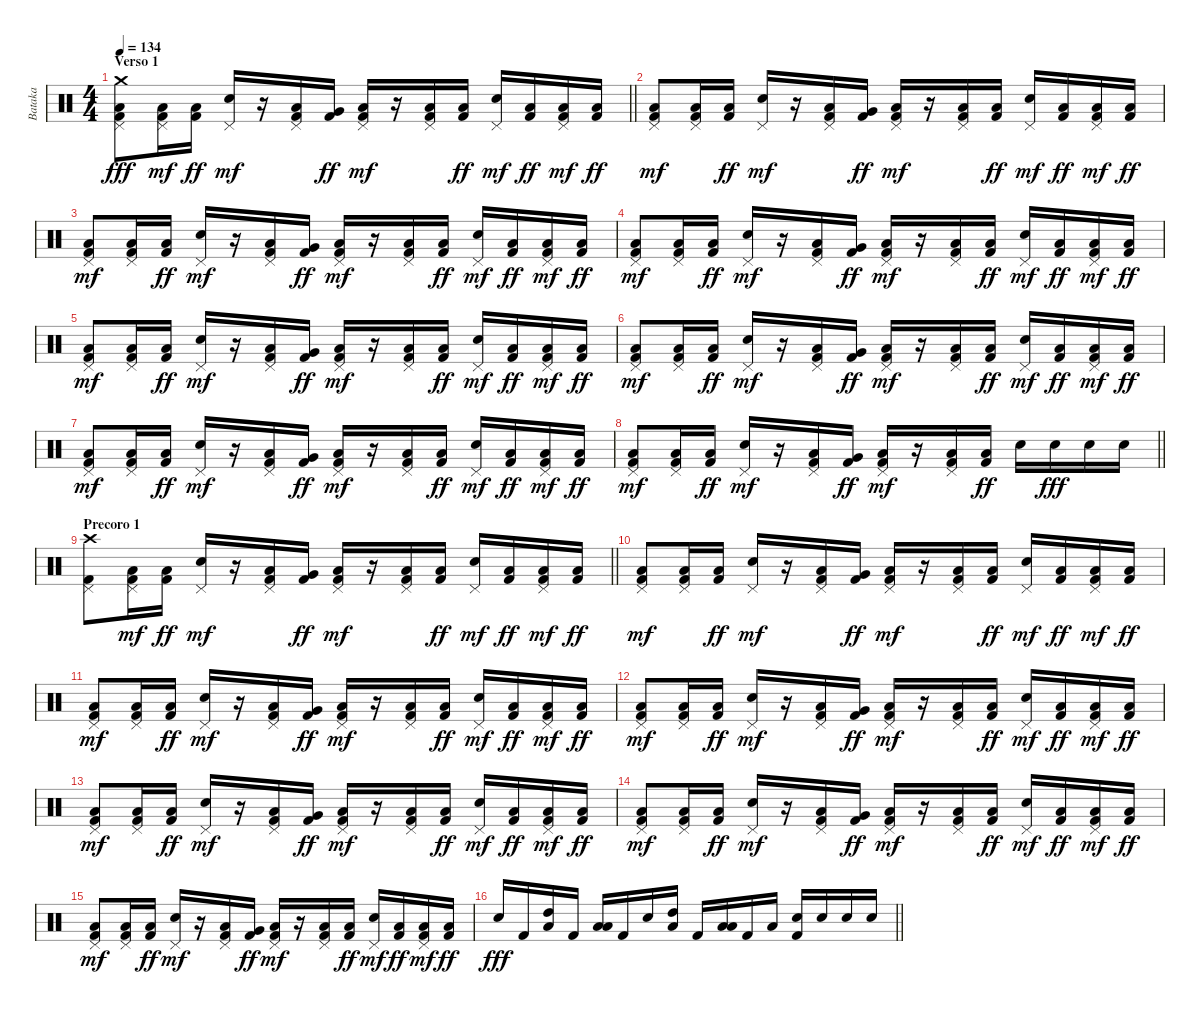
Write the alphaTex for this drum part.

\track ("Bataka" "Bataka") {instrument percussion}
\staff {score}
\articulation defaults
\ts (4 4)
\section ("" "Verso 1")
\tempo 134
\clef neutral
\barLineRight lightlight
\ks c
("Kick (hit) 2" "Low Floor Tom (hit)" "Pedal Hi-Hat (hit)" "Crash medium (hit)").8{dy fff} ("Kick (hit) 2" "Low Floor Tom (hit)" "Pedal Hi-Hat (hit)").16{dy mf} ("Kick (hit) 2" "Low Tom (hit)").16{dy ff} ("Snare (hit) 2" "Pedal Hi-Hat (hit)").16{dy mf} r.16 ("Kick (hit) 2" "Low Tom (hit)" "Pedal Hi-Hat (hit)").16 ("Kick (hit) 2" "Very Low Tom (hit)").16{dy ff} ("Kick (hit) 2" "Low Floor Tom (hit)" "Pedal Hi-Hat (hit)").16{dy mf} r.16 ("Kick (hit) 2" "Low Floor Tom (hit)" "Pedal Hi-Hat (hit)").16 ("Kick (hit) 2" "Low Tom (hit)").16{dy ff} ("Snare (hit) 2" "Pedal Hi-Hat (hit)").16{dy mf} ("Kick (hit) 2" "Low Tom (hit)").16{dy ff} ("Kick (hit) 2" "Low Tom (hit)" "Pedal Hi-Hat (hit)").16{dy mf} ("Kick (hit) 2" "Low Floor Tom (hit)").16{dy ff} |
("Kick (hit) 2" "Low Floor Tom (hit)" "Pedal Hi-Hat (hit)").8{dy mf} ("Kick (hit) 2" "Low Floor Tom (hit)" "Pedal Hi-Hat (hit)").16 ("Kick (hit) 2" "Low Tom (hit)").16{dy ff} ("Snare (hit) 2" "Pedal Hi-Hat (hit)").16{dy mf} r.16 ("Kick (hit) 2" "Low Tom (hit)" "Pedal Hi-Hat (hit)").16 ("Kick (hit) 2" "Very Low Tom (hit)").16{dy ff} ("Kick (hit) 2" "Low Floor Tom (hit)" "Pedal Hi-Hat (hit)").16{dy mf} r.16 ("Kick (hit) 2" "Low Floor Tom (hit)" "Pedal Hi-Hat (hit)").16 ("Kick (hit) 2" "Low Tom (hit)").16{dy ff} ("Snare (hit) 2" "Pedal Hi-Hat (hit)").16{dy mf} ("Kick (hit) 2" "Low Tom (hit)").16{dy ff} ("Kick (hit) 2" "Low Tom (hit)" "Pedal Hi-Hat (hit)").16{dy mf} ("Kick (hit) 2" "Low Floor Tom (hit)").16{dy ff} |
("Kick (hit) 2" "Low Floor Tom (hit)" "Pedal Hi-Hat (hit)").8{dy mf} ("Kick (hit) 2" "Low Floor Tom (hit)" "Pedal Hi-Hat (hit)").16 ("Kick (hit) 2" "Low Tom (hit)").16{dy ff} ("Snare (hit) 2" "Pedal Hi-Hat (hit)").16{dy mf} r.16 ("Kick (hit) 2" "Low Tom (hit)" "Pedal Hi-Hat (hit)").16 ("Kick (hit) 2" "Very Low Tom (hit)").16{dy ff} ("Kick (hit) 2" "Low Floor Tom (hit)" "Pedal Hi-Hat (hit)").16{dy mf} r.16 ("Kick (hit) 2" "Low Floor Tom (hit)" "Pedal Hi-Hat (hit)").16 ("Kick (hit) 2" "Low Tom (hit)").16{dy ff} ("Snare (hit) 2" "Pedal Hi-Hat (hit)").16{dy mf} ("Kick (hit) 2" "Low Tom (hit)").16{dy ff} ("Kick (hit) 2" "Low Tom (hit)" "Pedal Hi-Hat (hit)").16{dy mf} ("Kick (hit) 2" "Low Floor Tom (hit)").16{dy ff} |
("Kick (hit) 2" "Low Floor Tom (hit)" "Pedal Hi-Hat (hit)").8{dy mf} ("Kick (hit) 2" "Low Floor Tom (hit)" "Pedal Hi-Hat (hit)").16 ("Kick (hit) 2" "Low Tom (hit)").16{dy ff} ("Snare (hit) 2" "Pedal Hi-Hat (hit)").16{dy mf} r.16 ("Kick (hit) 2" "Low Tom (hit)" "Pedal Hi-Hat (hit)").16 ("Kick (hit) 2" "Very Low Tom (hit)").16{dy ff} ("Kick (hit) 2" "Low Floor Tom (hit)" "Pedal Hi-Hat (hit)").16{dy mf} r.16 ("Kick (hit) 2" "Low Floor Tom (hit)" "Pedal Hi-Hat (hit)").16 ("Kick (hit) 2" "Low Tom (hit)").16{dy ff} ("Snare (hit) 2" "Pedal Hi-Hat (hit)").16{dy mf} ("Kick (hit) 2" "Low Tom (hit)").16{dy ff} ("Kick (hit) 2" "Low Tom (hit)" "Pedal Hi-Hat (hit)").16{dy mf} ("Kick (hit) 2" "Low Floor Tom (hit)").16{dy ff} |
("Kick (hit) 2" "Low Floor Tom (hit)" "Pedal Hi-Hat (hit)").8{dy mf} ("Kick (hit) 2" "Low Floor Tom (hit)" "Pedal Hi-Hat (hit)").16 ("Kick (hit) 2" "Low Tom (hit)").16{dy ff} ("Snare (hit) 2" "Pedal Hi-Hat (hit)").16{dy mf} r.16 ("Kick (hit) 2" "Low Tom (hit)" "Pedal Hi-Hat (hit)").16 ("Kick (hit) 2" "Very Low Tom (hit)").16{dy ff} ("Kick (hit) 2" "Low Floor Tom (hit)" "Pedal Hi-Hat (hit)").16{dy mf} r.16 ("Kick (hit) 2" "Low Floor Tom (hit)" "Pedal Hi-Hat (hit)").16 ("Kick (hit) 2" "Low Tom (hit)").16{dy ff} ("Snare (hit) 2" "Pedal Hi-Hat (hit)").16{dy mf} ("Kick (hit) 2" "Low Tom (hit)").16{dy ff} ("Kick (hit) 2" "Low Tom (hit)" "Pedal Hi-Hat (hit)").16{dy mf} ("Kick (hit) 2" "Low Floor Tom (hit)").16{dy ff} |
("Kick (hit) 2" "Low Floor Tom (hit)" "Pedal Hi-Hat (hit)").8{dy mf} ("Kick (hit) 2" "Low Floor Tom (hit)" "Pedal Hi-Hat (hit)").16 ("Kick (hit) 2" "Low Tom (hit)").16{dy ff} ("Snare (hit) 2" "Pedal Hi-Hat (hit)").16{dy mf} r.16 ("Kick (hit) 2" "Low Tom (hit)" "Pedal Hi-Hat (hit)").16 ("Kick (hit) 2" "Very Low Tom (hit)").16{dy ff} ("Kick (hit) 2" "Low Floor Tom (hit)" "Pedal Hi-Hat (hit)").16{dy mf} r.16 ("Kick (hit) 2" "Low Floor Tom (hit)" "Pedal Hi-Hat (hit)").16 ("Kick (hit) 2" "Low Tom (hit)").16{dy ff} ("Snare (hit) 2" "Pedal Hi-Hat (hit)").16{dy mf} ("Kick (hit) 2" "Low Tom (hit)").16{dy ff} ("Kick (hit) 2" "Low Tom (hit)" "Pedal Hi-Hat (hit)").16{dy mf} ("Kick (hit) 2" "Low Floor Tom (hit)").16{dy ff} |
("Kick (hit) 2" "Low Floor Tom (hit)" "Pedal Hi-Hat (hit)").8{dy mf} ("Kick (hit) 2" "Low Floor Tom (hit)" "Pedal Hi-Hat (hit)").16 ("Kick (hit) 2" "Low Tom (hit)").16{dy ff} ("Snare (hit) 2" "Pedal Hi-Hat (hit)").16{dy mf} r.16 ("Kick (hit) 2" "Low Tom (hit)" "Pedal Hi-Hat (hit)").16 ("Kick (hit) 2" "Very Low Tom (hit)").16{dy ff} ("Kick (hit) 2" "Low Floor Tom (hit)" "Pedal Hi-Hat (hit)").16{dy mf} r.16 ("Kick (hit) 2" "Low Floor Tom (hit)" "Pedal Hi-Hat (hit)").16 ("Kick (hit) 2" "Low Tom (hit)").16{dy ff} ("Snare (hit) 2" "Pedal Hi-Hat (hit)").16{dy mf} ("Kick (hit) 2" "Low Tom (hit)").16{dy ff} ("Kick (hit) 2" "Low Tom (hit)" "Pedal Hi-Hat (hit)").16{dy mf} ("Kick (hit) 2" "Low Floor Tom (hit)").16{dy ff} |
\barLineRight lightlight
("Kick (hit) 2" "Low Floor Tom (hit)" "Pedal Hi-Hat (hit)").8{dy mf} ("Kick (hit) 2" "Low Floor Tom (hit)" "Pedal Hi-Hat (hit)").16 ("Kick (hit) 2" "Low Tom (hit)").16{dy ff} ("Snare (hit) 2" "Pedal Hi-Hat (hit)").16{dy mf} r.16 ("Kick (hit) 2" "Low Tom (hit)" "Pedal Hi-Hat (hit)").16 ("Kick (hit) 2" "Very Low Tom (hit)").16{dy ff} ("Kick (hit) 2" "Low Floor Tom (hit)" "Pedal Hi-Hat (hit)").16{dy mf} r.16 ("Kick (hit) 2" "Low Floor Tom (hit)" "Pedal Hi-Hat (hit)").16 ("Kick (hit) 2" "Low Tom (hit)").16{dy ff} "Snare (hit) 2".16 "Snare (hit) 2".16{dy fff} "Snare (hit) 2".16 "Snare (hit) 2".16 |
\section ("" "Precoro 1")
\barLineRight lightlight
("Kick (hit) 2" "Pedal Hi-Hat (hit)" "Crash high (hit)").8 ("Kick (hit) 2" "Low Floor Tom (hit)" "Pedal Hi-Hat (hit)").16{dy mf} ("Kick (hit) 2" "Low Tom (hit)").16{dy ff} ("Snare (hit) 2" "Pedal Hi-Hat (hit)").16{dy mf} r.16 ("Kick (hit) 2" "Low Tom (hit)" "Pedal Hi-Hat (hit)").16 ("Kick (hit) 2" "Very Low Tom (hit)").16{dy ff} ("Kick (hit) 2" "Low Floor Tom (hit)" "Pedal Hi-Hat (hit)").16{dy mf} r.16 ("Kick (hit) 2" "Low Floor Tom (hit)" "Pedal Hi-Hat (hit)").16 ("Kick (hit) 2" "Low Tom (hit)").16{dy ff} ("Snare (hit) 2" "Pedal Hi-Hat (hit)").16{dy mf} ("Kick (hit) 2" "Low Tom (hit)").16{dy ff} ("Kick (hit) 2" "Low Tom (hit)" "Pedal Hi-Hat (hit)").16{dy mf} ("Kick (hit) 2" "Low Floor Tom (hit)").16{dy ff} |
("Kick (hit) 2" "Low Floor Tom (hit)" "Pedal Hi-Hat (hit)").8{dy mf} ("Kick (hit) 2" "Low Floor Tom (hit)" "Pedal Hi-Hat (hit)").16 ("Kick (hit) 2" "Low Tom (hit)").16{dy ff} ("Snare (hit) 2" "Pedal Hi-Hat (hit)").16{dy mf} r.16 ("Kick (hit) 2" "Low Tom (hit)" "Pedal Hi-Hat (hit)").16 ("Kick (hit) 2" "Very Low Tom (hit)").16{dy ff} ("Kick (hit) 2" "Low Floor Tom (hit)" "Pedal Hi-Hat (hit)").16{dy mf} r.16 ("Kick (hit) 2" "Low Floor Tom (hit)" "Pedal Hi-Hat (hit)").16 ("Kick (hit) 2" "Low Tom (hit)").16{dy ff} ("Snare (hit) 2" "Pedal Hi-Hat (hit)").16{dy mf} ("Kick (hit) 2" "Low Tom (hit)").16{dy ff} ("Kick (hit) 2" "Low Tom (hit)" "Pedal Hi-Hat (hit)").16{dy mf} ("Kick (hit) 2" "Low Floor Tom (hit)").16{dy ff} |
("Kick (hit) 2" "Low Floor Tom (hit)" "Pedal Hi-Hat (hit)").8{dy mf} ("Kick (hit) 2" "Low Floor Tom (hit)" "Pedal Hi-Hat (hit)").16 ("Kick (hit) 2" "Low Tom (hit)").16{dy ff} ("Snare (hit) 2" "Pedal Hi-Hat (hit)").16{dy mf} r.16 ("Kick (hit) 2" "Low Tom (hit)" "Pedal Hi-Hat (hit)").16 ("Kick (hit) 2" "Very Low Tom (hit)").16{dy ff} ("Kick (hit) 2" "Low Floor Tom (hit)" "Pedal Hi-Hat (hit)").16{dy mf} r.16 ("Kick (hit) 2" "Low Floor Tom (hit)" "Pedal Hi-Hat (hit)").16 ("Kick (hit) 2" "Low Tom (hit)").16{dy ff} ("Snare (hit) 2" "Pedal Hi-Hat (hit)").16{dy mf} ("Kick (hit) 2" "Low Tom (hit)").16{dy ff} ("Kick (hit) 2" "Low Tom (hit)" "Pedal Hi-Hat (hit)").16{dy mf} ("Kick (hit) 2" "Low Floor Tom (hit)").16{dy ff} |
("Kick (hit) 2" "Low Floor Tom (hit)" "Pedal Hi-Hat (hit)").8{dy mf} ("Kick (hit) 2" "Low Floor Tom (hit)" "Pedal Hi-Hat (hit)").16 ("Kick (hit) 2" "Low Tom (hit)").16{dy ff} ("Snare (hit) 2" "Pedal Hi-Hat (hit)").16{dy mf} r.16 ("Kick (hit) 2" "Low Tom (hit)" "Pedal Hi-Hat (hit)").16 ("Kick (hit) 2" "Very Low Tom (hit)").16{dy ff} ("Kick (hit) 2" "Low Floor Tom (hit)" "Pedal Hi-Hat (hit)").16{dy mf} r.16 ("Kick (hit) 2" "Low Floor Tom (hit)" "Pedal Hi-Hat (hit)").16 ("Kick (hit) 2" "Low Tom (hit)").16{dy ff} ("Snare (hit) 2" "Pedal Hi-Hat (hit)").16{dy mf} ("Kick (hit) 2" "Low Tom (hit)").16{dy ff} ("Kick (hit) 2" "Low Tom (hit)" "Pedal Hi-Hat (hit)").16{dy mf} ("Kick (hit) 2" "Low Floor Tom (hit)").16{dy ff} |
("Kick (hit) 2" "Low Floor Tom (hit)" "Pedal Hi-Hat (hit)").8{dy mf} ("Kick (hit) 2" "Low Floor Tom (hit)" "Pedal Hi-Hat (hit)").16 ("Kick (hit) 2" "Low Tom (hit)").16{dy ff} ("Snare (hit) 2" "Pedal Hi-Hat (hit)").16{dy mf} r.16 ("Kick (hit) 2" "Low Tom (hit)" "Pedal Hi-Hat (hit)").16 ("Kick (hit) 2" "Very Low Tom (hit)").16{dy ff} ("Kick (hit) 2" "Low Floor Tom (hit)" "Pedal Hi-Hat (hit)").16{dy mf} r.16 ("Kick (hit) 2" "Low Floor Tom (hit)" "Pedal Hi-Hat (hit)").16 ("Kick (hit) 2" "Low Tom (hit)").16{dy ff} ("Snare (hit) 2" "Pedal Hi-Hat (hit)").16{dy mf} ("Kick (hit) 2" "Low Tom (hit)").16{dy ff} ("Kick (hit) 2" "Low Tom (hit)" "Pedal Hi-Hat (hit)").16{dy mf} ("Kick (hit) 2" "Low Floor Tom (hit)").16{dy ff} |
("Kick (hit) 2" "Low Floor Tom (hit)" "Pedal Hi-Hat (hit)").8{dy mf} ("Kick (hit) 2" "Low Floor Tom (hit)" "Pedal Hi-Hat (hit)").16 ("Kick (hit) 2" "Low Tom (hit)").16{dy ff} ("Snare (hit) 2" "Pedal Hi-Hat (hit)").16{dy mf} r.16 ("Kick (hit) 2" "Low Tom (hit)" "Pedal Hi-Hat (hit)").16 ("Kick (hit) 2" "Very Low Tom (hit)").16{dy ff} ("Kick (hit) 2" "Low Floor Tom (hit)" "Pedal Hi-Hat (hit)").16{dy mf} r.16 ("Kick (hit) 2" "Low Floor Tom (hit)" "Pedal Hi-Hat (hit)").16 ("Kick (hit) 2" "Low Tom (hit)").16{dy ff} ("Snare (hit) 2" "Pedal Hi-Hat (hit)").16{dy mf} ("Kick (hit) 2" "Low Tom (hit)").16{dy ff} ("Kick (hit) 2" "Low Tom (hit)" "Pedal Hi-Hat (hit)").16{dy mf} ("Kick (hit) 2" "Low Floor Tom (hit)").16{dy ff} |
("Kick (hit) 2" "Low Floor Tom (hit)" "Pedal Hi-Hat (hit)").8{dy mf} ("Kick (hit) 2" "Low Floor Tom (hit)" "Pedal Hi-Hat (hit)").16 ("Kick (hit) 2" "Low Tom (hit)").16{dy ff} ("Snare (hit) 2" "Pedal Hi-Hat (hit)").16{dy mf} r.16 ("Kick (hit) 2" "Low Tom (hit)" "Pedal Hi-Hat (hit)").16 ("Kick (hit) 2" "Very Low Tom (hit)").16{dy ff} ("Kick (hit) 2" "Low Floor Tom (hit)" "Pedal Hi-Hat (hit)").16{dy mf} r.16 ("Kick (hit) 2" "Low Floor Tom (hit)" "Pedal Hi-Hat (hit)").16 ("Kick (hit) 2" "Low Tom (hit)").16{dy ff} ("Snare (hit) 2" "Pedal Hi-Hat (hit)").16{dy mf} ("Kick (hit) 2" "Low Tom (hit)").16{dy ff} ("Kick (hit) 2" "Low Tom (hit)" "Pedal Hi-Hat (hit)").16{dy mf} ("Kick (hit) 2" "Low Floor Tom (hit)").16{dy ff} |
\barLineRight lightlight "Snare (hit) 2".16{dy fff} "Kick (hit) 2".16
("High Tom (hit)" "Low Floor Tom (hit)").16 "Kick (hit) 2".16 ("Low Floor Tom (hit)" "Low Tom (hit)").16 "Kick (hit) 2".16 "Snare (hit) 2".16 ("High Tom (hit)" "Low Floor Tom (hit)").16 "Kick (hit) 2".16 ("Low Tom (hit)" "Low Floor Tom (hit)").16 "Kick (hit) 2".16 "Low Floor Tom (hit)".16 ("Snare (hit) 2" "Kick (hit) 2").16 "Snare (hit) 2".16 "Snare (hit) 2".16 "Snare (hit) 2".16
